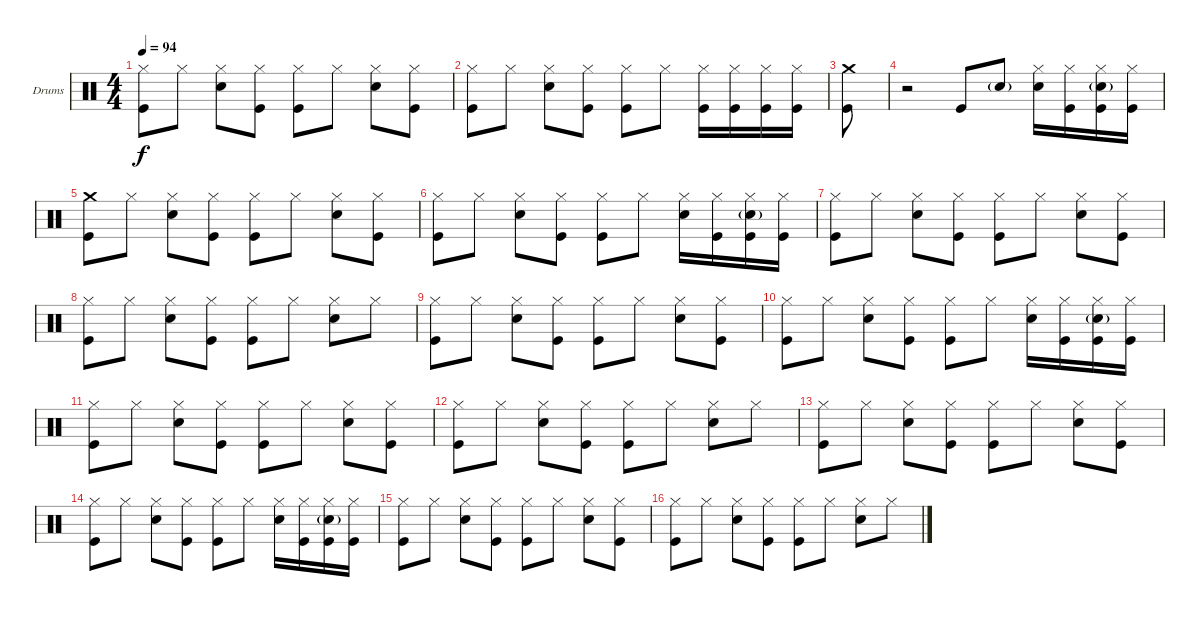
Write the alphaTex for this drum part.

\defaultSystemsLayout 4
\bracketExtendMode groupsimilarinstruments
\firstSystemTrackNameOrientation horizontal
\otherSystemsTrackNameOrientation horizontal
\track ("Drumkit" "Drums") {instrument percussion}
\staff {score}
\articulation defaults
\ts (4 4)
\tempo 94
\clef neutral
\ks c
("Kick (hit)" "Hi-Hat (closed)").8{dy f} "Hi-Hat (closed)".8 ("Hi-Hat (closed)" "Snare (hit) 2").8 ("Kick (hit)" "Hi-Hat (closed)").8 ("Kick (hit)" "Hi-Hat (closed)").8 "Hi-Hat (closed)".8 ("Snare (hit) 2" "Hi-Hat (closed)").8 ("Hi-Hat (closed)" "Kick (hit)").8 |
("Kick (hit)" "Hi-Hat (closed)").8 "Hi-Hat (closed)".8 ("Hi-Hat (closed)" "Snare (hit) 2").8 ("Hi-Hat (closed)" "Kick (hit)").8 ("Kick (hit)" "Hi-Hat (closed)").8 "Hi-Hat (closed)".8 ("Hi-Hat (closed)" "Kick (hit)").16 ("Hi-Hat (closed)" "Kick (hit)").16 ("Kick (hit)" "Hi-Hat (closed)").16 ("Kick (hit)" "Hi-Hat (closed)").16 |
("Kick (hit)" "Crash medium (hit)").8 |
r.2 "Kick (hit)".8 "Snare (hit) 2"{g}.8 ("Snare (hit) 2" "Hi-Hat (closed)").16 ("Kick (hit)" "Hi-Hat (closed)").16 ("Kick (hit)" "Snare (hit) 2"{g} "Hi-Hat (closed)").16 ("Kick (hit)" "Hi-Hat (closed)").16 |
("Kick (hit)" "Crash medium (hit)").8 "Hi-Hat (closed)".8 ("Hi-Hat (closed)" "Snare (hit) 2").8 ("Kick (hit)" "Hi-Hat (closed)").8 ("Kick (hit)" "Hi-Hat (closed)").8 "Hi-Hat (closed)".8 ("Snare (hit) 2" "Hi-Hat (closed)").8 ("Hi-Hat (closed)" "Kick (hit)").8 |
("Kick (hit)" "Hi-Hat (closed)").8 "Hi-Hat (closed)".8 ("Hi-Hat (closed)" "Snare (hit) 2").8 ("Hi-Hat (closed)" "Kick (hit)").8 ("Kick (hit)" "Hi-Hat (closed)").8 "Hi-Hat (closed)".8 ("Hi-Hat (closed)" "Snare (hit) 2").16 ("Hi-Hat (closed)" "Kick (hit)").16 ("Kick (hit)" "Hi-Hat (closed)" "Snare (hit) 2"{g}).16 ("Kick (hit)" "Hi-Hat (closed)").16 |
("Kick (hit)" "Hi-Hat (closed)").8 "Hi-Hat (closed)".8 ("Hi-Hat (closed)" "Snare (hit) 2").8 ("Kick (hit)" "Hi-Hat (closed)").8 ("Kick (hit)" "Hi-Hat (closed)").8 "Hi-Hat (closed)".8 ("Snare (hit) 2" "Hi-Hat (closed)").8 ("Hi-Hat (closed)" "Kick (hit)").8 |
("Kick (hit)" "Hi-Hat (closed)").8 "Hi-Hat (closed)".8 ("Hi-Hat (closed)" "Snare (hit) 2").8 ("Hi-Hat (closed)" "Kick (hit)").8 ("Kick (hit)" "Hi-Hat (closed)").8 "Hi-Hat (closed)".8 ("Hi-Hat (closed)" "Snare (hit) 2").8 "Hi-Hat (closed)".8 |
("Kick (hit)" "Hi-Hat (closed)").8 "Hi-Hat (closed)".8 ("Hi-Hat (closed)" "Snare (hit) 2").8 ("Kick (hit)" "Hi-Hat (closed)").8 ("Kick (hit)" "Hi-Hat (closed)").8 "Hi-Hat (closed)".8 ("Snare (hit) 2" "Hi-Hat (closed)").8 ("Hi-Hat (closed)" "Kick (hit)").8 |
("Kick (hit)" "Hi-Hat (closed)").8 "Hi-Hat (closed)".8 ("Hi-Hat (closed)" "Snare (hit) 2").8 ("Hi-Hat (closed)" "Kick (hit)").8 ("Kick (hit)" "Hi-Hat (closed)").8 "Hi-Hat (closed)".8 ("Hi-Hat (closed)" "Snare (hit) 2").16 ("Hi-Hat (closed)" "Kick (hit)").16 ("Kick (hit)" "Hi-Hat (closed)" "Snare (hit) 2"{g}).16 ("Kick (hit)" "Hi-Hat (closed)").16 |
("Kick (hit)" "Hi-Hat (closed)").8 "Hi-Hat (closed)".8 ("Hi-Hat (closed)" "Snare (hit) 2").8 ("Kick (hit)" "Hi-Hat (closed)").8 ("Kick (hit)" "Hi-Hat (closed)").8 "Hi-Hat (closed)".8 ("Snare (hit) 2" "Hi-Hat (closed)").8 ("Hi-Hat (closed)" "Kick (hit)").8 |
("Kick (hit)" "Hi-Hat (closed)").8 "Hi-Hat (closed)".8 ("Hi-Hat (closed)" "Snare (hit) 2").8 ("Hi-Hat (closed)" "Kick (hit)").8 ("Kick (hit)" "Hi-Hat (closed)").8 "Hi-Hat (closed)".8 ("Hi-Hat (closed)" "Snare (hit) 2").8 "Hi-Hat (closed)".8 |
("Kick (hit)" "Hi-Hat (closed)").8 "Hi-Hat (closed)".8 ("Hi-Hat (closed)" "Snare (hit) 2").8 ("Kick (hit)" "Hi-Hat (closed)").8 ("Kick (hit)" "Hi-Hat (closed)").8 "Hi-Hat (closed)".8 ("Snare (hit) 2" "Hi-Hat (closed)").8 ("Hi-Hat (closed)" "Kick (hit)").8 |
("Kick (hit)" "Hi-Hat (closed)").8 "Hi-Hat (closed)".8 ("Hi-Hat (closed)" "Snare (hit) 2").8 ("Hi-Hat (closed)" "Kick (hit)").8 ("Kick (hit)" "Hi-Hat (closed)").8 "Hi-Hat (closed)".8 ("Hi-Hat (closed)" "Snare (hit) 2").16 ("Hi-Hat (closed)" "Kick (hit)").16 ("Kick (hit)" "Hi-Hat (closed)" "Snare (hit) 2"{g}).16 ("Kick (hit)" "Hi-Hat (closed)").16 |
("Kick (hit)" "Hi-Hat (closed)").8 "Hi-Hat (closed)".8 ("Hi-Hat (closed)" "Snare (hit) 2").8 ("Kick (hit)" "Hi-Hat (closed)").8 ("Kick (hit)" "Hi-Hat (closed)").8 "Hi-Hat (closed)".8 ("Snare (hit) 2" "Hi-Hat (closed)").8 ("Hi-Hat (closed)" "Kick (hit)").8 |
("Kick (hit)" "Hi-Hat (closed)").8 "Hi-Hat (closed)".8 ("Hi-Hat (closed)" "Snare (hit) 2").8 ("Hi-Hat (closed)" "Kick (hit)").8 ("Kick (hit)" "Hi-Hat (closed)").8 "Hi-Hat (closed)".8 ("Hi-Hat (closed)" "Snare (hit) 2").8 "Hi-Hat (closed)".8
